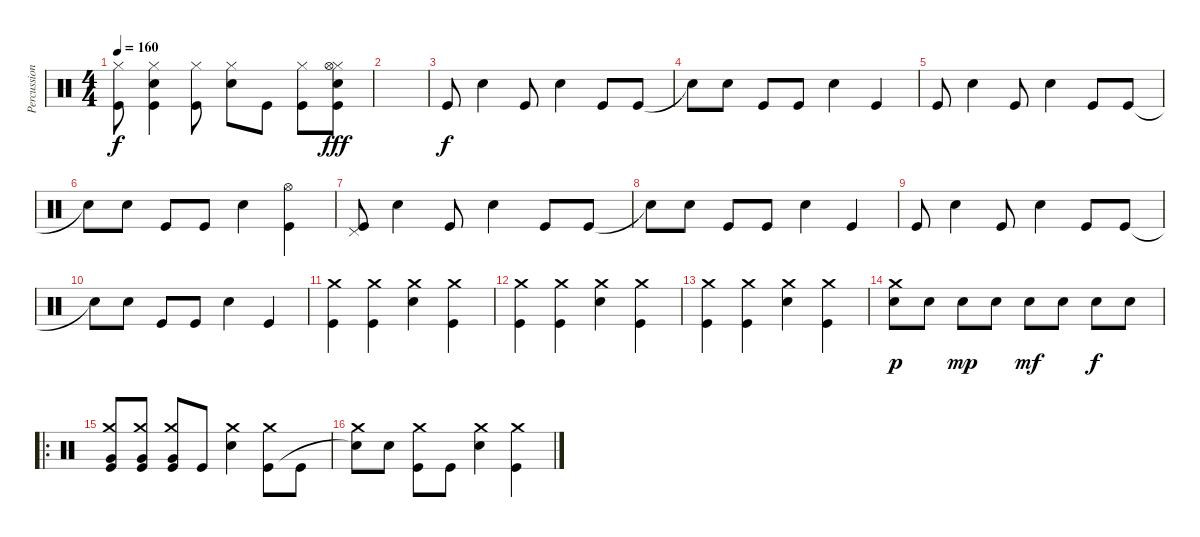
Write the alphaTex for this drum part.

\track ("Percussion" "Percussion") {instrument percussion}
\staff {score}
\articulation defaults
\ts (4 4)
\tempo 160
\clef neutral
\ks c
("Hi-Hat (closed)" "Kick (hit)").8{dy f} ("Hi-Hat (closed)" "Electric Snare (hit)" "Kick (hit)").4 ("Hi-Hat (closed)" "Kick (hit)").8 ("Hi-Hat (closed)" "Electric Snare (hit)").8 "Kick (hit)".8 ("Hi-Hat (closed)" "Kick (hit)").8 ("Hi-Hat (closed)" "Electric Snare (hit)" "Hi-Hat (open)" "Kick (hit)").8{dy fff} |
|
"Kick (hit)".8{dy f} "Electric Snare (hit)".4 "Kick (hit)".8 "Electric Snare (hit)".4 "Kick (hit)".8 "Kick (hit)".8 |
"Snare (hit)"{t}.8 "Electric Snare (hit)".8 "Kick (hit)".8 "Kick (hit)".8 "Electric Snare (hit)".4 "Kick (hit)".4 |
"Kick (hit)".8 "Electric Snare (hit)".4 "Kick (hit)".8 "Electric Snare (hit)".4 "Kick (hit)".8 "Kick (hit)".8 |
"Snare (hit)"{t}.8 "Electric Snare (hit)".8 "Kick (hit)".8 "Kick (hit)".8 "Electric Snare (hit)".4 ("Hi-Hat (open)" "Kick (hit)").4 |
("Pedal Hi-Hat (hit)" "Kick (hit)").8 "Electric Snare (hit)".4 "Kick (hit)".8 "Electric Snare (hit)".4 "Kick (hit)".8 "Kick (hit)".8 |
"Snare (hit)"{t}.8 "Electric Snare (hit)".8 "Kick (hit)".8 "Kick (hit)".8 "Electric Snare (hit)".4 "Kick (hit)".4 |
"Kick (hit)".8 "Electric Snare (hit)".4 "Kick (hit)".8 "Electric Snare (hit)".4 "Kick (hit)".8 "Kick (hit)".8 |
"Snare (hit)"{t}.8 "Electric Snare (hit)".8 "Kick (hit)".8 "Kick (hit)".8 "Electric Snare (hit)".4 "Kick (hit)".4 |
("Crash medium (hit)" "Kick (hit)").4 ("Crash medium (hit)" "Kick (hit)").4 ("Crash medium (hit)" "Electric Snare (hit)").4 ("Crash medium (hit)" "Kick (hit)").4 |
("Crash medium (hit)" "Kick (hit)").4 ("Crash medium (hit)" "Kick (hit)").4 ("Crash medium (hit)" "Electric Snare (hit)").4 ("Crash medium (hit)" "Kick (hit)").4 |
("Crash medium (hit)" "Kick (hit)").4 ("Crash medium (hit)" "Kick (hit)").4 ("Crash medium (hit)" "Electric Snare (hit)").4 ("Crash medium (hit)" "Kick (hit)").4 |
("Crash medium (hit)" "Electric Snare (hit)").8{dy p} "Electric Snare (hit)".8 "Electric Snare (hit)".8{dy mp} "Electric Snare (hit)".8 "Electric Snare (hit)".8{dy mf} "Electric Snare (hit)".8 "Electric Snare (hit)".8{dy f} "Electric Snare (hit)".8 |
\ro
("Crash medium (hit)" "Very Low Tom (hit)" "Kick (hit)").8 ("Crash medium (hit)" "Very Low Tom (hit)" "Kick (hit)").8 ("Crash medium (hit)" "Very Low Tom (hit)" "Kick (hit)").8 "Kick (hit)".8 ("Crash medium (hit)" "Electric Snare (hit)").4 ("Crash medium (hit)" "Kick (hit)").8 "Kick (hit)".8 |
("Crash medium (hit)" "Snare (hit)"{t}).8 "Electric Snare (hit)".8 ("Crash medium (hit)" "Kick (hit)").8 "Kick (hit)".8 ("Crash medium (hit)" "Electric Snare (hit)").4 ("Crash medium (hit)" "Kick (hit)").4
